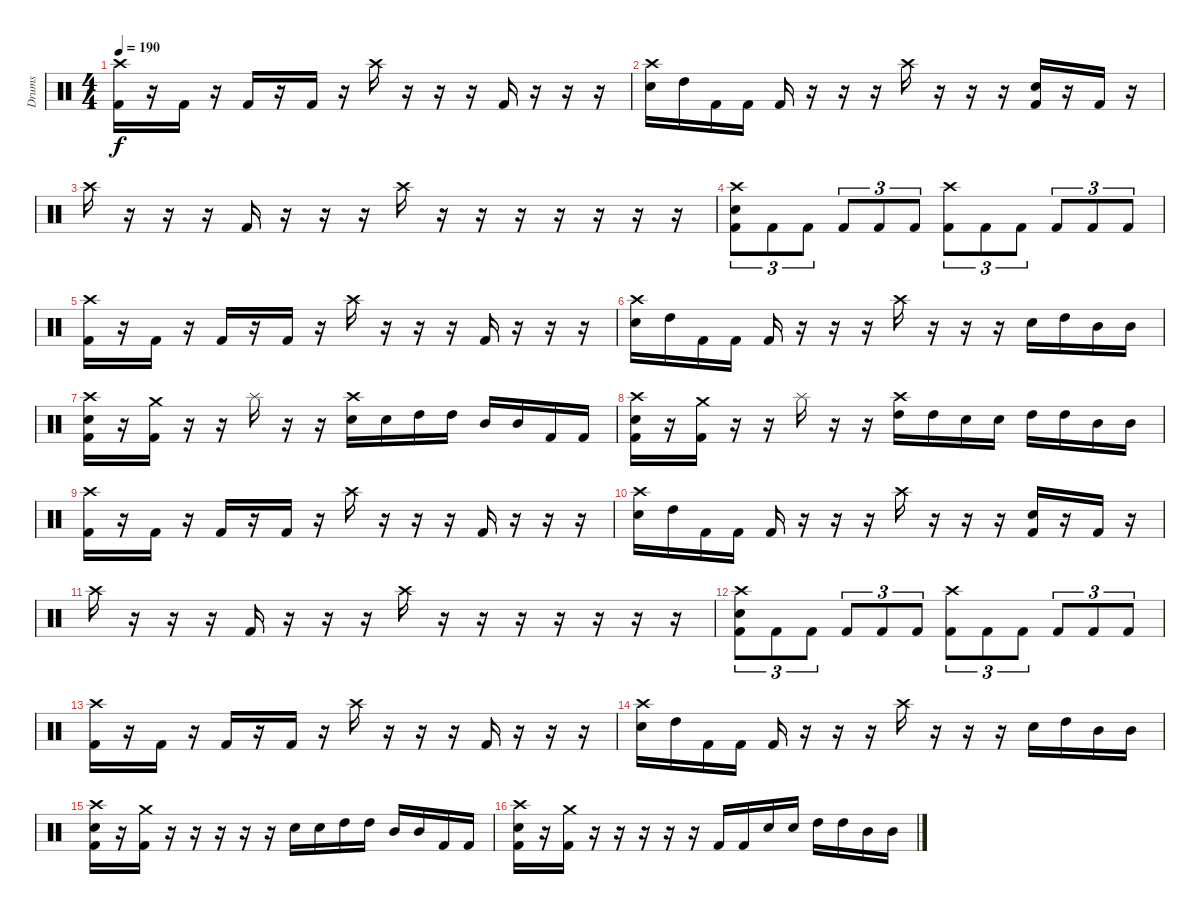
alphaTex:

\track ("Drums" "Drums") {instrument percussion}
\staff {score}
\articulation defaults
\ts (4 4)
\tempo 190
\clef neutral
\ks c
("Crash high (hit)" "Kick (hit) 2").16{dy f} r.16 "Kick (hit) 2".16 r.16 "Kick (hit) 2".16 r.16 "Kick (hit) 2".16 r.16 "Crash high (hit)".16 r.16 r.16 r.16 "Kick (hit) 2".16 r.16 r.16 r.16 |
("Crash high (hit)" "Electric Snare (hit)").16 "High Tom (hit)".16 "Kick (hit) 2".16 "Kick (hit) 2".16 "Kick (hit) 2".16 r.16 r.16 r.16 "Crash high (hit)".16 r.16 r.16 r.16 ("Electric Snare (hit)" "Kick (hit) 2").16 r.16 "Kick (hit) 2".16 r.16 |
"Crash high (hit)".16 r.16 r.16 r.16 "Kick (hit) 2".16 r.16 r.16 r.16 "Crash high (hit)".16 r.16 r.16 r.16 r.16 r.16 r.16 r.16 |
("Crash high (hit)" "Electric Snare (hit)" "Kick (hit) 2").8{tu (3 2)} "Kick (hit) 2".8{tu (3 2)} "Kick (hit) 2".8{tu (3 2)} "Kick (hit) 2".8{tu (3 2)} "Kick (hit) 2".8{tu (3 2)} "Kick (hit) 2".8{tu (3 2)} ("Crash high (hit)" "Kick (hit) 2").8{tu (3 2)} "Kick (hit) 2".8{tu (3 2)} "Kick (hit) 2".8{tu (3 2)} "Kick (hit) 2".8{tu (3 2)} "Kick (hit) 2".8{tu (3 2)} "Kick (hit) 2".8{tu (3 2)} |
("Crash high (hit)" "Kick (hit) 2").16 r.16 "Kick (hit) 2".16 r.16 "Kick (hit) 2".16 r.16 "Kick (hit) 2".16 r.16 "Crash high (hit)".16 r.16 r.16 r.16 "Kick (hit) 2".16 r.16 r.16 r.16 |
("Crash high (hit)" "Electric Snare (hit)").16 "High Tom (hit)".16 "Kick (hit) 2".16 "Kick (hit) 2".16 "Kick (hit) 2".16 r.16 r.16 r.16 "Crash high (hit)".16 r.16 r.16 r.16 "Electric Snare (hit)".16 "High Tom (hit)".16 "Mid Tom (hit)".16 "Mid Tom (hit)".16 |
("Crash high (hit)" "Electric Snare (hit)" "Kick (hit) 2").16 r.16 ("Crash medium (hit)" "Kick (hit) 2").16 r.16 r.16 "Splash (hit)".16 r.16 r.16 ("Crash high (hit)" "Electric Snare (hit)").16 "Electric Snare (hit)".16 "High Tom (hit)".16 "High Tom (hit)".16 "Mid Tom (hit)".16 "Mid Tom (hit)".16 "Kick (hit) 2".16 "Kick (hit) 2".16 |
("Crash high (hit)" "Electric Snare (hit)" "Kick (hit) 2").16 r.16 ("Crash medium (hit)" "Kick (hit) 2").16 r.16 r.16 "Splash (hit)".16 r.16 r.16 ("Crash high (hit)" "High Tom (hit)").16 "High Tom (hit)".16 "Electric Snare (hit)".16 "Electric Snare (hit)".16 "High Tom (hit)".16 "High Tom (hit)".16 "Mid Tom (hit)".16 "Mid Tom (hit)".16 |
("Crash high (hit)" "Kick (hit) 2").16 r.16 "Kick (hit) 2".16 r.16 "Kick (hit) 2".16 r.16 "Kick (hit) 2".16 r.16 "Crash high (hit)".16 r.16 r.16 r.16 "Kick (hit) 2".16 r.16 r.16 r.16 |
("Crash high (hit)" "Electric Snare (hit)").16 "High Tom (hit)".16 "Kick (hit) 2".16 "Kick (hit) 2".16 "Kick (hit) 2".16 r.16 r.16 r.16 "Crash high (hit)".16 r.16 r.16 r.16 ("Electric Snare (hit)" "Kick (hit) 2").16 r.16 "Kick (hit) 2".16 r.16 |
"Crash high (hit)".16 r.16 r.16 r.16 "Kick (hit) 2".16 r.16 r.16 r.16 "Crash high (hit)".16 r.16 r.16 r.16 r.16 r.16 r.16 r.16 |
("Crash high (hit)" "Electric Snare (hit)" "Kick (hit) 2").8{tu (3 2)} "Kick (hit) 2".8{tu (3 2)} "Kick (hit) 2".8{tu (3 2)} "Kick (hit) 2".8{tu (3 2)} "Kick (hit) 2".8{tu (3 2)} "Kick (hit) 2".8{tu (3 2)} ("Crash high (hit)" "Kick (hit) 2").8{tu (3 2)} "Kick (hit) 2".8{tu (3 2)} "Kick (hit) 2".8{tu (3 2)} "Kick (hit) 2".8{tu (3 2)} "Kick (hit) 2".8{tu (3 2)} "Kick (hit) 2".8{tu (3 2)} |
("Crash high (hit)" "Kick (hit) 2").16 r.16 "Kick (hit) 2".16 r.16 "Kick (hit) 2".16 r.16 "Kick (hit) 2".16 r.16 "Crash high (hit)".16 r.16 r.16 r.16 "Kick (hit) 2".16 r.16 r.16 r.16 |
("Crash high (hit)" "Electric Snare (hit)").16 "High Tom (hit)".16 "Kick (hit) 2".16 "Kick (hit) 2".16 "Kick (hit) 2".16 r.16 r.16 r.16 "Crash high (hit)".16 r.16 r.16 r.16 "Electric Snare (hit)".16 "High Tom (hit)".16 "Mid Tom (hit)".16 "Mid Tom (hit)".16 |
("Crash high (hit)" "Electric Snare (hit)" "Kick (hit) 2").16 r.16 ("Crash medium (hit)" "Kick (hit) 2").16 r.16 r.16 r.16 r.16 r.16 "Electric Snare (hit)".16 "Electric Snare (hit)".16 "High Tom (hit)".16 "High Tom (hit)".16 "Mid Tom (hit)".16 "Mid Tom (hit)".16 "Kick (hit) 2".16 "Kick (hit) 2".16 |
("Crash high (hit)" "Electric Snare (hit)" "Kick (hit) 2").16 r.16 ("Crash medium (hit)" "Kick (hit) 2").16 r.16 r.16 r.16 r.16 r.16 "Kick (hit) 2".16 "Kick (hit) 2".16 "Electric Snare (hit)".16 "Electric Snare (hit)".16 "High Tom (hit)".16 "High Tom (hit)".16 "Mid Tom (hit)".16 "Mid Tom (hit)".16
